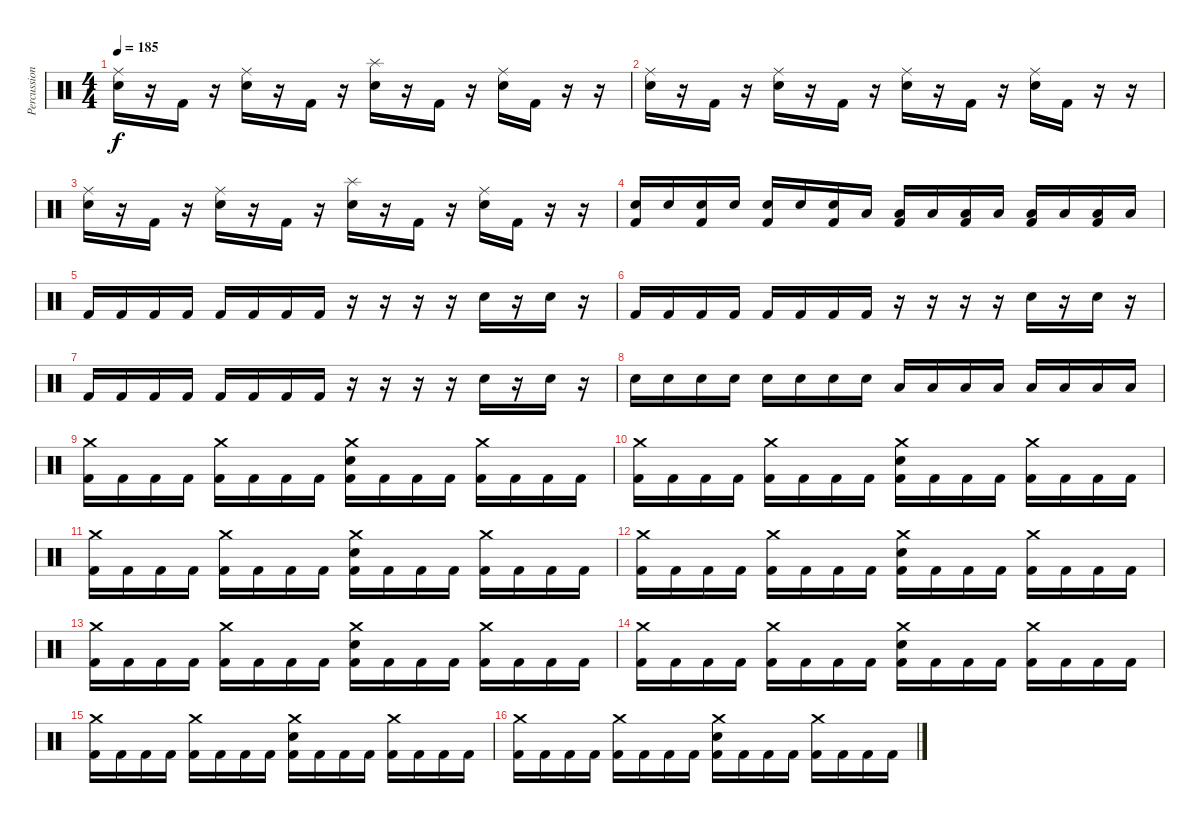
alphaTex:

\track ("Percussion" "Percussion") {instrument percussion}
\staff {score}
\articulation defaults
\ts (4 4)
\tempo 185
\clef neutral
\ks c
("Snare (hit) 2" "Ride (middle)").16{dy f} r.16 "Kick (hit) 2".16 r.16 ("Snare (hit) 2" "Ride (middle)").16 r.16 "Kick (hit) 2".16 r.16 ("Snare (hit) 2" "Splash (hit)").16 r.16 "Kick (hit) 2".16 r.16 ("Snare (hit) 2" "Ride (middle)").16 "Kick (hit) 2".16 r.16 r.16 |
("Snare (hit) 2" "Ride (middle)").16 r.16 "Kick (hit) 2".16 r.16 ("Snare (hit) 2" "Ride (middle)").16 r.16 "Kick (hit) 2".16 r.16 ("Snare (hit) 2" "Ride (middle)").16 r.16 "Kick (hit) 2".16 r.16 ("Snare (hit) 2" "Ride (middle)").16 "Kick (hit) 2".16 r.16 r.16 |
("Snare (hit) 2" "Ride (middle)").16 r.16 "Kick (hit) 2".16 r.16 ("Snare (hit) 2" "Ride (middle)").16 r.16 "Kick (hit) 2".16 r.16 ("Snare (hit) 2" "Splash (hit)").16 r.16 "Kick (hit) 2".16 r.16 ("Snare (hit) 2" "Ride (middle)").16 "Kick (hit) 2".16 r.16 r.16 |
("Electric Snare (hit)" "Kick (hit) 2").16 "Electric Snare (hit)".16 ("Electric Snare (hit)" "Kick (hit) 2").16 "Electric Snare (hit)".16 ("Electric Snare (hit)" "Kick (hit) 2").16 "Electric Snare (hit)".16 ("Electric Snare (hit)" "Kick (hit) 2").16 "Low Floor Tom (hit)".16 ("Low Floor Tom (hit)" "Kick (hit) 2").16 "Low Floor Tom (hit)".16 ("Low Floor Tom (hit)" "Kick (hit) 2").16 "Low Floor Tom (hit)".16 ("Low Floor Tom (hit)" "Kick (hit) 2").16 "Low Floor Tom (hit)".16 ("Low Floor Tom (hit)" "Kick (hit) 2").16 "Low Floor Tom (hit)".16 |
"Kick (hit) 2".16 "Kick (hit) 2".16 "Kick (hit) 2".16 "Kick (hit) 2".16 "Kick (hit) 2".16 "Kick (hit) 2".16 "Kick (hit) 2".16 "Kick (hit) 2".16 r.16 r.16 r.16 r.16 "Electric Snare (hit)".16 r.16 "Electric Snare (hit)".16 r.16 |
"Kick (hit) 2".16 "Kick (hit) 2".16 "Kick (hit) 2".16 "Kick (hit) 2".16 "Kick (hit) 2".16 "Kick (hit) 2".16 "Kick (hit) 2".16 "Kick (hit) 2".16 r.16 r.16 r.16 r.16 "Electric Snare (hit)".16 r.16 "Electric Snare (hit)".16 r.16 |
"Kick (hit) 2".16 "Kick (hit) 2".16 "Kick (hit) 2".16 "Kick (hit) 2".16 "Kick (hit) 2".16 "Kick (hit) 2".16 "Kick (hit) 2".16 "Kick (hit) 2".16 r.16 r.16 r.16 r.16 "Electric Snare (hit)".16 r.16 "Electric Snare (hit)".16 r.16 |
"Electric Snare (hit)".16 "Electric Snare (hit)".16 "Electric Snare (hit)".16 "Electric Snare (hit)".16 "Electric Snare (hit)".16 "Electric Snare (hit)".16 "Electric Snare (hit)".16 "Electric Snare (hit)".16 "Low Floor Tom (hit)".16 "Low Floor Tom (hit)".16 "Low Floor Tom (hit)".16 "Low Floor Tom (hit)".16 "Low Floor Tom (hit)".16 "Low Floor Tom (hit)".16 "Low Floor Tom (hit)".16 "Low Floor Tom (hit)".16 |
("Crash medium (hit)" "Kick (hit) 2").16 "Kick (hit) 2".16 "Kick (hit) 2".16 "Kick (hit) 2".16 ("Crash medium (hit)" "Kick (hit) 2").16 "Kick (hit) 2".16 "Kick (hit) 2".16 "Kick (hit) 2".16 ("Crash medium (hit)" "Snare (hit) 2" "Kick (hit) 2").16 "Kick (hit) 2".16 "Kick (hit) 2".16 "Kick (hit) 2".16 ("Crash medium (hit)" "Kick (hit) 2").16 "Kick (hit) 2".16 "Kick (hit) 2".16 "Kick (hit) 2".16 |
("Crash medium (hit)" "Kick (hit) 2").16 "Kick (hit) 2".16 "Kick (hit) 2".16 "Kick (hit) 2".16 ("Crash medium (hit)" "Kick (hit) 2").16 "Kick (hit) 2".16 "Kick (hit) 2".16 "Kick (hit) 2".16 ("Crash medium (hit)" "Snare (hit) 2" "Kick (hit) 2").16 "Kick (hit) 2".16 "Kick (hit) 2".16 "Kick (hit) 2".16 ("Crash medium (hit)" "Kick (hit) 2").16 "Kick (hit) 2".16 "Kick (hit) 2".16 "Kick (hit) 2".16 |
("Crash medium (hit)" "Kick (hit) 2").16 "Kick (hit) 2".16 "Kick (hit) 2".16 "Kick (hit) 2".16 ("Crash medium (hit)" "Kick (hit) 2").16 "Kick (hit) 2".16 "Kick (hit) 2".16 "Kick (hit) 2".16 ("Crash medium (hit)" "Snare (hit) 2" "Kick (hit) 2").16 "Kick (hit) 2".16 "Kick (hit) 2".16 "Kick (hit) 2".16 ("Crash medium (hit)" "Kick (hit) 2").16 "Kick (hit) 2".16 "Kick (hit) 2".16 "Kick (hit) 2".16 |
("Crash medium (hit)" "Kick (hit) 2").16 "Kick (hit) 2".16 "Kick (hit) 2".16 "Kick (hit) 2".16 ("Crash medium (hit)" "Kick (hit) 2").16 "Kick (hit) 2".16 "Kick (hit) 2".16 "Kick (hit) 2".16 ("Crash medium (hit)" "Snare (hit) 2" "Kick (hit) 2").16 "Kick (hit) 2".16 "Kick (hit) 2".16 "Kick (hit) 2".16 ("Crash medium (hit)" "Kick (hit) 2").16 "Kick (hit) 2".16 "Kick (hit) 2".16 "Kick (hit) 2".16 |
("Crash medium (hit)" "Kick (hit) 2").16 "Kick (hit) 2".16 "Kick (hit) 2".16 "Kick (hit) 2".16 ("Crash medium (hit)" "Kick (hit) 2").16 "Kick (hit) 2".16 "Kick (hit) 2".16 "Kick (hit) 2".16 ("Crash medium (hit)" "Snare (hit) 2" "Kick (hit) 2").16 "Kick (hit) 2".16 "Kick (hit) 2".16 "Kick (hit) 2".16 ("Crash medium (hit)" "Kick (hit) 2").16 "Kick (hit) 2".16 "Kick (hit) 2".16 "Kick (hit) 2".16 |
("Crash medium (hit)" "Kick (hit) 2").16 "Kick (hit) 2".16 "Kick (hit) 2".16 "Kick (hit) 2".16 ("Crash medium (hit)" "Kick (hit) 2").16 "Kick (hit) 2".16 "Kick (hit) 2".16 "Kick (hit) 2".16 ("Crash medium (hit)" "Snare (hit) 2" "Kick (hit) 2").16 "Kick (hit) 2".16 "Kick (hit) 2".16 "Kick (hit) 2".16 ("Crash medium (hit)" "Kick (hit) 2").16 "Kick (hit) 2".16 "Kick (hit) 2".16 "Kick (hit) 2".16 |
("Crash medium (hit)" "Kick (hit) 2").16 "Kick (hit) 2".16 "Kick (hit) 2".16 "Kick (hit) 2".16 ("Crash medium (hit)" "Kick (hit) 2").16 "Kick (hit) 2".16 "Kick (hit) 2".16 "Kick (hit) 2".16 ("Crash medium (hit)" "Snare (hit) 2" "Kick (hit) 2").16 "Kick (hit) 2".16 "Kick (hit) 2".16 "Kick (hit) 2".16 ("Crash medium (hit)" "Kick (hit) 2").16 "Kick (hit) 2".16 "Kick (hit) 2".16 "Kick (hit) 2".16 |
("Crash medium (hit)" "Kick (hit) 2").16 "Kick (hit) 2".16 "Kick (hit) 2".16 "Kick (hit) 2".16 ("Crash medium (hit)" "Kick (hit) 2").16 "Kick (hit) 2".16 "Kick (hit) 2".16 "Kick (hit) 2".16 ("Crash medium (hit)" "Snare (hit) 2" "Kick (hit) 2").16 "Kick (hit) 2".16 "Kick (hit) 2".16 "Kick (hit) 2".16 ("Crash medium (hit)" "Kick (hit) 2").16 "Kick (hit) 2".16 "Kick (hit) 2".16 "Kick (hit) 2".16
